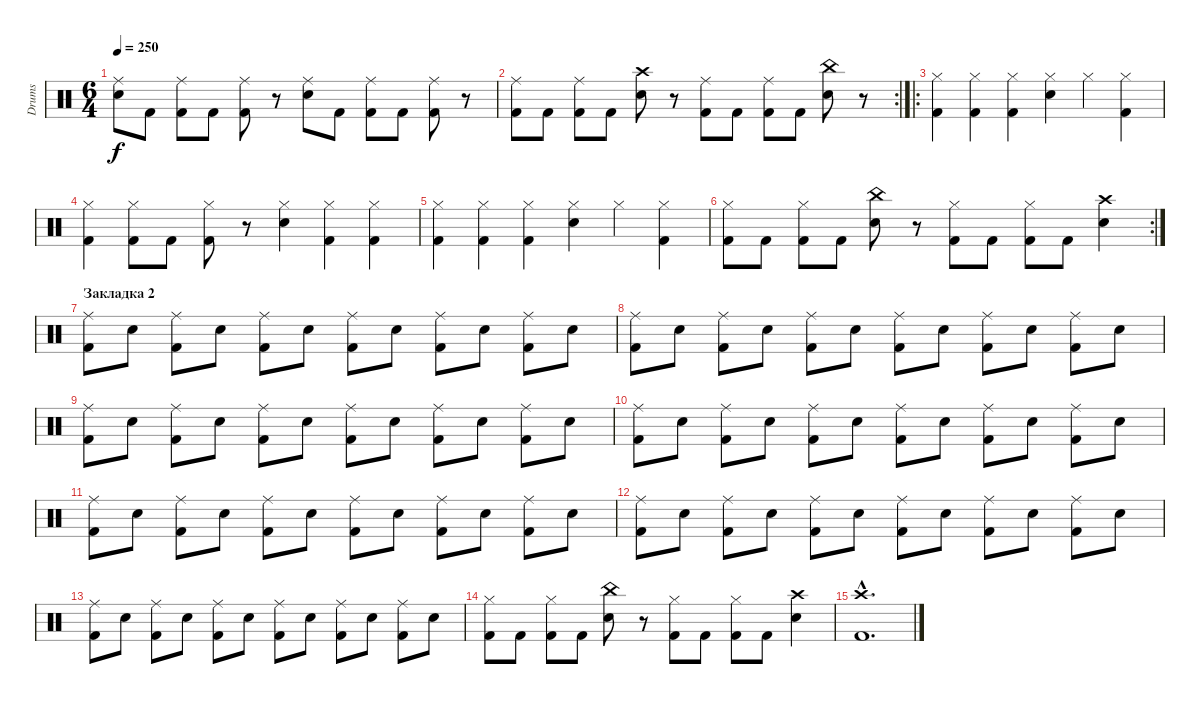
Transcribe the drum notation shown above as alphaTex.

\track ("Drums" "Drums") {instrument percussion}
\staff {score}
\articulation defaults
\ts (6 4)
\tempo 250
\clef neutral
\ks c
("Ride (middle)" "Snare (hit) 2").8{dy f} "Kick (hit) 2".8 ("Ride (middle)" "Kick (hit) 2").8 "Kick (hit) 2".8 ("Ride (middle)" "Kick (hit) 2").8 r.8 ("Ride (middle)" "Snare (hit) 2").8 "Kick (hit) 2".8 ("Ride (middle)" "Kick (hit) 2").8 "Kick (hit) 2".8 ("Ride (middle)" "Kick (hit) 2").8 r.8 |
\rc 2
("Ride (middle)" "Kick (hit) 2").8 "Kick (hit) 2".8 ("Ride (middle)" "Kick (hit) 2").8 "Kick (hit) 2".8 ("Crash high (hit)" "Snare (hit) 2").8 r.8 ("Ride (middle)" "Kick (hit) 2").8 "Kick (hit) 2".8 ("Ride (middle)" "Kick (hit) 2").8 "Kick (hit) 2".8 ("China (hit)" "Snare (hit) 2").8 r.8 |
\ro
("Hi-Hat (closed)" "Kick (hit) 2").4 ("Hi-Hat (closed)" "Kick (hit) 2").4 ("Hi-Hat (closed)" "Kick (hit) 2").4 ("Hi-Hat (closed)" "Snare (hit) 2").4 "Hi-Hat (closed)".4 ("Hi-Hat (closed)" "Kick (hit) 2").4 |
("Hi-Hat (closed)" "Kick (hit) 2").4 ("Hi-Hat (closed)" "Kick (hit) 2").8 "Kick (hit) 2".8 ("Hi-Hat (closed)" "Kick (hit) 2").8 r.8 ("Hi-Hat (closed)" "Snare (hit) 2").4 ("Hi-Hat (closed)" "Kick (hit) 2").4 ("Hi-Hat (closed)" "Kick (hit) 2").4 |
("Hi-Hat (closed)" "Kick (hit) 2").4 ("Hi-Hat (closed)" "Kick (hit) 2").4 ("Hi-Hat (closed)" "Kick (hit) 2").4 ("Hi-Hat (closed)" "Snare (hit) 2").4 "Hi-Hat (closed)".4 ("Hi-Hat (closed)" "Kick (hit) 2").4 |
\rc 2
("Hi-Hat (closed)" "Kick (hit) 2").8 "Kick (hit) 2".8 ("Hi-Hat (closed)" "Kick (hit) 2").8 "Kick (hit) 2".8 ("China (hit)" "Snare (hit) 2").8 r.8 ("Hi-Hat (closed)" "Kick (hit) 2").8 "Kick (hit) 2".8 ("Hi-Hat (closed)" "Kick (hit) 2").8 "Kick (hit) 2".8 ("Crash high (hit)" "Snare (hit) 2").4 |
\section ("" "Закладка 2")
("Ride (middle)" "Kick (hit) 2").8 "Snare (hit) 2".8 ("Ride (middle)" "Kick (hit) 2").8 "Snare (hit) 2".8 ("Ride (middle)" "Kick (hit) 2").8 "Snare (hit) 2".8 ("Ride (middle)" "Kick (hit) 2").8 "Snare (hit) 2".8 ("Ride (middle)" "Kick (hit) 2").8 "Snare (hit) 2".8 ("Ride (middle)" "Kick (hit) 2").8 "Snare (hit) 2".8 |
("Ride (middle)" "Kick (hit) 2").8 "Snare (hit) 2".8 ("Ride (middle)" "Kick (hit) 2").8 "Snare (hit) 2".8 ("Ride (middle)" "Kick (hit) 2").8 "Snare (hit) 2".8 ("Ride (middle)" "Kick (hit) 2").8 "Snare (hit) 2".8 ("Ride (middle)" "Kick (hit) 2").8 "Snare (hit) 2".8 ("Ride (middle)" "Kick (hit) 2").8 "Snare (hit) 2".8 |
("Ride (middle)" "Kick (hit) 2").8 "Snare (hit) 2".8 ("Ride (middle)" "Kick (hit) 2").8 "Snare (hit) 2".8 ("Ride (middle)" "Kick (hit) 2").8 "Snare (hit) 2".8 ("Ride (middle)" "Kick (hit) 2").8 "Snare (hit) 2".8 ("Ride (middle)" "Kick (hit) 2").8 "Snare (hit) 2".8 ("Ride (middle)" "Kick (hit) 2").8 "Snare (hit) 2".8 |
("Ride (middle)" "Kick (hit) 2").8 "Snare (hit) 2".8 ("Ride (middle)" "Kick (hit) 2").8 "Snare (hit) 2".8 ("Ride (middle)" "Kick (hit) 2").8 "Snare (hit) 2".8 ("Ride (middle)" "Kick (hit) 2").8 "Snare (hit) 2".8 ("Ride (middle)" "Kick (hit) 2").8 "Snare (hit) 2".8 ("Ride (middle)" "Kick (hit) 2").8 "Snare (hit) 2".8 |
("Ride (middle)" "Kick (hit) 2").8 "Snare (hit) 2".8 ("Ride (middle)" "Kick (hit) 2").8 "Snare (hit) 2".8 ("Ride (middle)" "Kick (hit) 2").8 "Snare (hit) 2".8 ("Ride (middle)" "Kick (hit) 2").8 "Snare (hit) 2".8 ("Ride (middle)" "Kick (hit) 2").8 "Snare (hit) 2".8 ("Ride (middle)" "Kick (hit) 2").8 "Snare (hit) 2".8 |
("Ride (middle)" "Kick (hit) 2").8 "Snare (hit) 2".8 ("Ride (middle)" "Kick (hit) 2").8 "Snare (hit) 2".8 ("Ride (middle)" "Kick (hit) 2").8 "Snare (hit) 2".8 ("Ride (middle)" "Kick (hit) 2").8 "Snare (hit) 2".8 ("Ride (middle)" "Kick (hit) 2").8 "Snare (hit) 2".8 ("Ride (middle)" "Kick (hit) 2").8 "Snare (hit) 2".8 |
("Ride (middle)" "Kick (hit) 2").8 "Snare (hit) 2".8 ("Ride (middle)" "Kick (hit) 2").8 "Snare (hit) 2".8 ("Ride (middle)" "Kick (hit) 2").8 "Snare (hit) 2".8 ("Ride (middle)" "Kick (hit) 2").8 "Snare (hit) 2".8 ("Ride (middle)" "Kick (hit) 2").8 "Snare (hit) 2".8 ("Ride (middle)" "Kick (hit) 2").8 "Snare (hit) 2".8 |
("Hi-Hat (closed)" "Kick (hit) 2").8 "Kick (hit) 2".8 ("Hi-Hat (closed)" "Kick (hit) 2").8 "Kick (hit) 2".8 ("China (hit)" "Snare (hit) 2").8 r.8 ("Hi-Hat (closed)" "Kick (hit) 2").8 "Kick (hit) 2".8 ("Hi-Hat (closed)" "Kick (hit) 2").8 "Kick (hit) 2".8 ("Crash high (hit)" "Snare (hit) 2").4 |
("Crash high (hit)"{hac} "Kick (hit) 2"{hac}).1{d}
